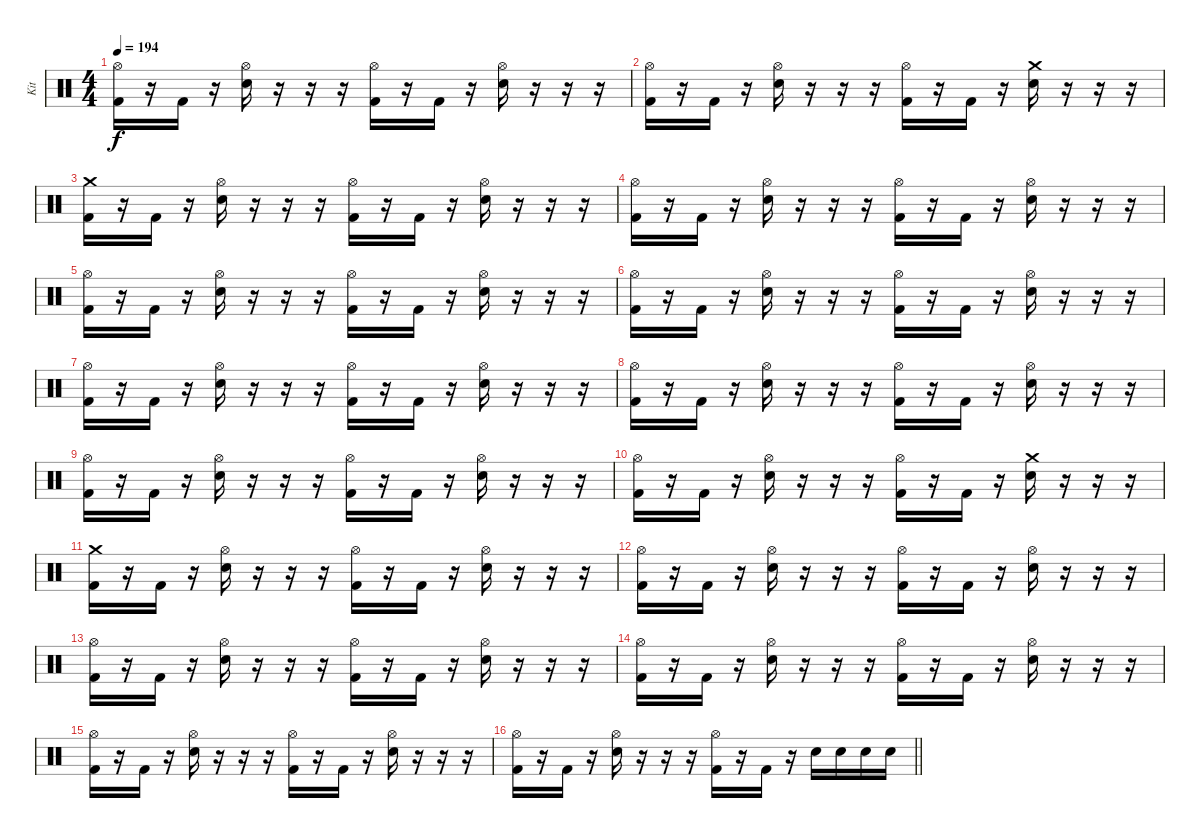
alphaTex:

\track ("Kit" "Kit") {instrument percussion}
\staff {score}
\articulation defaults
\ts (4 4)
\tempo 194
\clef neutral
\ks c
("Hi-Hat (open)" "Kick (hit) 2").16{dy f} r.16 "Kick (hit) 2".16 r.16 ("Hi-Hat (open)" "Electric Snare (hit)").16 r.16 r.16 r.16 ("Hi-Hat (open)" "Kick (hit) 2").16 r.16 "Kick (hit) 2".16 r.16 ("Hi-Hat (open)" "Electric Snare (hit)").16 r.16 r.16 r.16 |
("Hi-Hat (open)" "Kick (hit) 2").16 r.16 "Kick (hit) 2".16 r.16 ("Hi-Hat (open)" "Electric Snare (hit)").16 r.16 r.16 r.16 ("Hi-Hat (open)" "Kick (hit) 2").16 r.16 "Kick (hit) 2".16 r.16 ("Crash medium (hit)" "Electric Snare (hit)").16 r.16 r.16 r.16 |
("Crash medium (hit)" "Kick (hit) 2").16 r.16 "Kick (hit) 2".16 r.16 ("Hi-Hat (open)" "Electric Snare (hit)").16 r.16 r.16 r.16 ("Hi-Hat (open)" "Kick (hit) 2").16 r.16 "Kick (hit) 2".16 r.16 ("Hi-Hat (open)" "Electric Snare (hit)").16 r.16 r.16 r.16 |
("Hi-Hat (open)" "Kick (hit) 2").16 r.16 "Kick (hit) 2".16 r.16 ("Hi-Hat (open)" "Electric Snare (hit)").16 r.16 r.16 r.16 ("Hi-Hat (open)" "Kick (hit) 2").16 r.16 "Kick (hit) 2".16 r.16 ("Hi-Hat (open)" "Electric Snare (hit)").16 r.16 r.16 r.16 |
("Hi-Hat (open)" "Kick (hit) 2").16 r.16 "Kick (hit) 2".16 r.16 ("Hi-Hat (open)" "Electric Snare (hit)").16 r.16 r.16 r.16 ("Hi-Hat (open)" "Kick (hit) 2").16 r.16 "Kick (hit) 2".16 r.16 ("Hi-Hat (open)" "Electric Snare (hit)").16 r.16 r.16 r.16 |
("Hi-Hat (open)" "Kick (hit) 2").16 r.16 "Kick (hit) 2".16 r.16 ("Hi-Hat (open)" "Electric Snare (hit)").16 r.16 r.16 r.16 ("Hi-Hat (open)" "Kick (hit) 2").16 r.16 "Kick (hit) 2".16 r.16 ("Hi-Hat (open)" "Electric Snare (hit)").16 r.16 r.16 r.16 |
("Hi-Hat (open)" "Kick (hit) 2").16 r.16 "Kick (hit) 2".16 r.16 ("Hi-Hat (open)" "Electric Snare (hit)").16 r.16 r.16 r.16 ("Hi-Hat (open)" "Kick (hit) 2").16 r.16 "Kick (hit) 2".16 r.16 ("Hi-Hat (open)" "Electric Snare (hit)").16 r.16 r.16 r.16 |
("Hi-Hat (open)" "Kick (hit) 2").16 r.16 "Kick (hit) 2".16 r.16 ("Hi-Hat (open)" "Electric Snare (hit)").16 r.16 r.16 r.16 ("Hi-Hat (open)" "Kick (hit) 2").16 r.16 "Kick (hit) 2".16 r.16 ("Hi-Hat (open)" "Electric Snare (hit)").16 r.16 r.16 r.16 |
("Hi-Hat (open)" "Kick (hit) 2").16 r.16 "Kick (hit) 2".16 r.16 ("Hi-Hat (open)" "Electric Snare (hit)").16 r.16 r.16 r.16 ("Hi-Hat (open)" "Kick (hit) 2").16 r.16 "Kick (hit) 2".16 r.16 ("Hi-Hat (open)" "Electric Snare (hit)").16 r.16 r.16 r.16 |
("Hi-Hat (open)" "Kick (hit) 2").16 r.16 "Kick (hit) 2".16 r.16 ("Hi-Hat (open)" "Electric Snare (hit)").16 r.16 r.16 r.16 ("Hi-Hat (open)" "Kick (hit) 2").16 r.16 "Kick (hit) 2".16 r.16 ("Crash medium (hit)" "Electric Snare (hit)").16 r.16 r.16 r.16 |
("Crash medium (hit)" "Kick (hit) 2").16 r.16 "Kick (hit) 2".16 r.16 ("Hi-Hat (open)" "Electric Snare (hit)").16 r.16 r.16 r.16 ("Hi-Hat (open)" "Kick (hit) 2").16 r.16 "Kick (hit) 2".16 r.16 ("Hi-Hat (open)" "Electric Snare (hit)").16 r.16 r.16 r.16 |
("Hi-Hat (open)" "Kick (hit) 2").16 r.16 "Kick (hit) 2".16 r.16 ("Hi-Hat (open)" "Electric Snare (hit)").16 r.16 r.16 r.16 ("Hi-Hat (open)" "Kick (hit) 2").16 r.16 "Kick (hit) 2".16 r.16 ("Hi-Hat (open)" "Electric Snare (hit)").16 r.16 r.16 r.16 |
("Hi-Hat (open)" "Kick (hit) 2").16 r.16 "Kick (hit) 2".16 r.16 ("Hi-Hat (open)" "Electric Snare (hit)").16 r.16 r.16 r.16 ("Hi-Hat (open)" "Kick (hit) 2").16 r.16 "Kick (hit) 2".16 r.16 ("Hi-Hat (open)" "Electric Snare (hit)").16 r.16 r.16 r.16 |
("Hi-Hat (open)" "Kick (hit) 2").16 r.16 "Kick (hit) 2".16 r.16 ("Hi-Hat (open)" "Electric Snare (hit)").16 r.16 r.16 r.16 ("Hi-Hat (open)" "Kick (hit) 2").16 r.16 "Kick (hit) 2".16 r.16 ("Hi-Hat (open)" "Electric Snare (hit)").16 r.16 r.16 r.16 |
("Hi-Hat (open)" "Kick (hit) 2").16 r.16 "Kick (hit) 2".16 r.16 ("Hi-Hat (open)" "Electric Snare (hit)").16 r.16 r.16 r.16 ("Hi-Hat (open)" "Kick (hit) 2").16 r.16 "Kick (hit) 2".16 r.16 ("Hi-Hat (open)" "Electric Snare (hit)").16 r.16 r.16 r.16 |
\barLineRight lightlight
("Hi-Hat (open)" "Kick (hit) 2").16 r.16 "Kick (hit) 2".16 r.16 ("Hi-Hat (open)" "Electric Snare (hit)").16 r.16 r.16 r.16 ("Hi-Hat (open)" "Kick (hit) 2").16 r.16 "Kick (hit) 2".16 r.16 "Electric Snare (hit)".16 "Electric Snare (hit)".16 "Electric Snare (hit)".16 "Electric Snare (hit)".16
